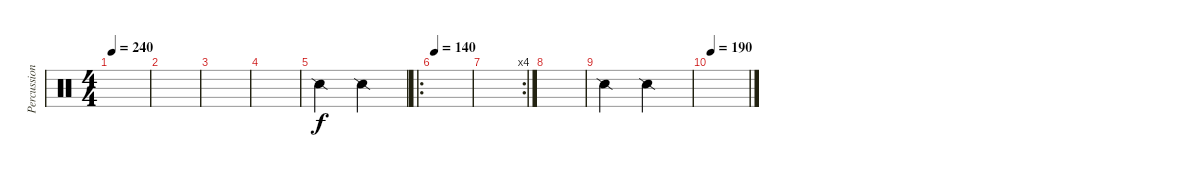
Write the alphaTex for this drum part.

\track ("Percussion" "Percussion") {instrument percussion}
\staff {score}
\articulation defaults
\ts (4 4)
\tempo 240
\clef neutral
\ks c
|
|
|
|
"Snare (side stick) 2".2 "Snare (side stick) 2".2 |
\ro
\tempo 140
|
\rc 4
|
|
"Snare (side stick) 2".2 "Snare (side stick) 2".2 |
\tempo 190
